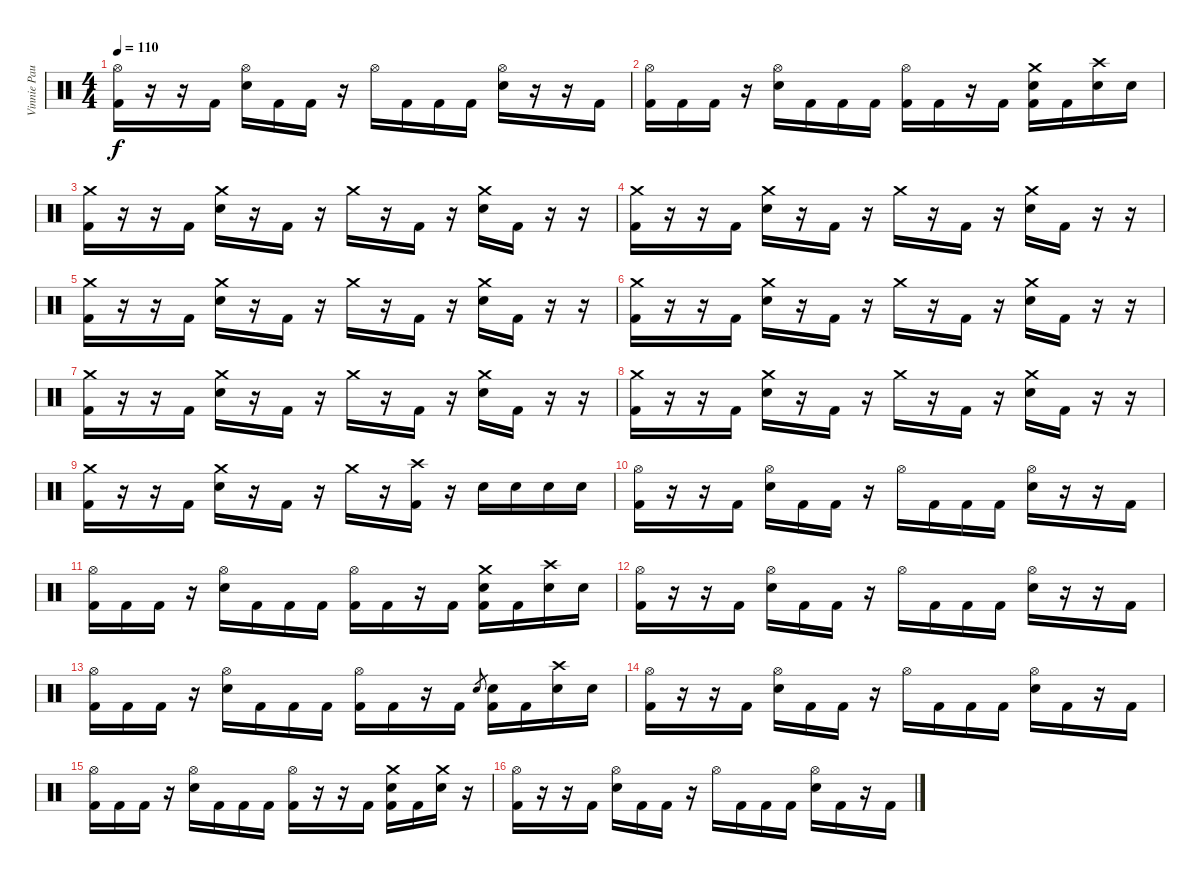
\track ("Vinnie Paul" "Vinnie Pau") {instrument percussion}
\staff {score}
\articulation defaults
\ts (4 4)
\tempo 110
\clef neutral
\ks c
("Hi-Hat (open)" "Kick (hit) 2").16{dy f} r.16 r.16 "Kick (hit) 2".16 ("Hi-Hat (open)" "Electric Snare (hit)").16 "Kick (hit) 2".16 "Kick (hit) 2".16 r.16 "Hi-Hat (open)".16 "Kick (hit) 2".16 "Kick (hit) 2".16 "Kick (hit) 2".16 ("Hi-Hat (open)" "Electric Snare (hit)").16 r.16 r.16 "Kick (hit) 2".16 |
("Hi-Hat (open)" "Kick (hit) 2").16 "Kick (hit) 2".16 "Kick (hit) 2".16 r.16 ("Hi-Hat (open)" "Electric Snare (hit)").16 "Kick (hit) 2".16 "Kick (hit) 2".16 "Kick (hit) 2".16 ("Hi-Hat (open)" "Kick (hit) 2").16 "Kick (hit) 2".16 r.16 "Kick (hit) 2".16 ("Crash medium (hit)" "Electric Snare (hit)" "Kick (hit) 2").16 "Kick (hit) 2".16 ("Crash high (hit)" "Electric Snare (hit)").16 "Electric Snare (hit)".16 |
("Crash medium (hit)" "Kick (hit) 2").16 r.16 r.16 "Kick (hit) 2".16 ("Crash medium (hit)" "Electric Snare (hit)").16 r.16 "Kick (hit) 2".16 r.16 "Crash medium (hit)".16 r.16 "Kick (hit) 2".16 r.16 ("Crash medium (hit)" "Electric Snare (hit)").16 "Kick (hit) 2".16 r.16 r.16 |
("Crash medium (hit)" "Kick (hit) 2").16 r.16 r.16 "Kick (hit) 2".16 ("Crash medium (hit)" "Electric Snare (hit)").16 r.16 "Kick (hit) 2".16 r.16 "Crash medium (hit)".16 r.16 "Kick (hit) 2".16 r.16 ("Crash medium (hit)" "Electric Snare (hit)").16 "Kick (hit) 2".16 r.16 r.16 |
("Crash medium (hit)" "Kick (hit) 2").16 r.16 r.16 "Kick (hit) 2".16 ("Crash medium (hit)" "Electric Snare (hit)").16 r.16 "Kick (hit) 2".16 r.16 "Crash medium (hit)".16 r.16 "Kick (hit) 2".16 r.16 ("Crash medium (hit)" "Electric Snare (hit)").16 "Kick (hit) 2".16 r.16 r.16 |
("Crash medium (hit)" "Kick (hit) 2").16 r.16 r.16 "Kick (hit) 2".16 ("Crash medium (hit)" "Electric Snare (hit)").16 r.16 "Kick (hit) 2".16 r.16 "Crash medium (hit)".16 r.16 "Kick (hit) 2".16 r.16 ("Crash medium (hit)" "Electric Snare (hit)").16 "Kick (hit) 2".16 r.16 r.16 |
("Crash medium (hit)" "Kick (hit) 2").16 r.16 r.16 "Kick (hit) 2".16 ("Crash medium (hit)" "Electric Snare (hit)").16 r.16 "Kick (hit) 2".16 r.16 "Crash medium (hit)".16 r.16 "Kick (hit) 2".16 r.16 ("Crash medium (hit)" "Electric Snare (hit)").16 "Kick (hit) 2".16 r.16 r.16 |
("Crash medium (hit)" "Kick (hit) 2").16 r.16 r.16 "Kick (hit) 2".16 ("Crash medium (hit)" "Electric Snare (hit)").16 r.16 "Kick (hit) 2".16 r.16 "Crash medium (hit)".16 r.16 "Kick (hit) 2".16 r.16 ("Crash medium (hit)" "Electric Snare (hit)").16 "Kick (hit) 2".16 r.16 r.16 |
("Crash medium (hit)" "Kick (hit) 2").16 r.16 r.16 "Kick (hit) 2".16 ("Crash medium (hit)" "Electric Snare (hit)").16 r.16 "Kick (hit) 2".16 r.16 "Crash medium (hit)".16 r.16 ("Crash high (hit)" "Kick (hit) 2").16 r.16 "Electric Snare (hit)".16 "Electric Snare (hit)".16 "Electric Snare (hit)".16 "Electric Snare (hit)".16 |
("Hi-Hat (open)" "Kick (hit) 2").16 r.16 r.16 "Kick (hit) 2".16 ("Hi-Hat (open)" "Electric Snare (hit)").16 "Kick (hit) 2".16 "Kick (hit) 2".16 r.16 "Hi-Hat (open)".16 "Kick (hit) 2".16 "Kick (hit) 2".16 "Kick (hit) 2".16 ("Hi-Hat (open)" "Electric Snare (hit)").16 r.16 r.16 "Kick (hit) 2".16 |
("Hi-Hat (open)" "Kick (hit) 2").16 "Kick (hit) 2".16 "Kick (hit) 2".16 r.16 ("Hi-Hat (open)" "Electric Snare (hit)").16 "Kick (hit) 2".16 "Kick (hit) 2".16 "Kick (hit) 2".16 ("Hi-Hat (open)" "Kick (hit) 2").16 "Kick (hit) 2".16 r.16 "Kick (hit) 2".16 ("Crash medium (hit)" "Electric Snare (hit)" "Kick (hit) 2").16 "Kick (hit) 2".16 ("Crash high (hit)" "Electric Snare (hit)").16 "Electric Snare (hit)".16 |
("Hi-Hat (open)" "Kick (hit) 2").16 r.16 r.16 "Kick (hit) 2".16 ("Hi-Hat (open)" "Electric Snare (hit)").16 "Kick (hit) 2".16 "Kick (hit) 2".16 r.16 "Hi-Hat (open)".16 "Kick (hit) 2".16 "Kick (hit) 2".16 "Kick (hit) 2".16 ("Hi-Hat (open)" "Electric Snare (hit)").16 r.16 r.16 "Kick (hit) 2".16 |
("Hi-Hat (open)" "Kick (hit) 2").16 "Kick (hit) 2".16 "Kick (hit) 2".16 r.16 ("Hi-Hat (open)" "Electric Snare (hit)").16 "Kick (hit) 2".16 "Kick (hit) 2".16 "Kick (hit) 2".16 ("Hi-Hat (open)" "Kick (hit) 2").16 "Kick (hit) 2".16 r.16 "Kick (hit) 2".16 "Electric Snare (hit)".8{gr} ("Electric Snare (hit)" "Kick (hit) 2").16 "Kick (hit) 2".16 ("Crash high (hit)" "Electric Snare (hit)").16 "Electric Snare (hit)".16 |
("Hi-Hat (open)" "Kick (hit) 2").16 r.16 r.16 "Kick (hit) 2".16 ("Hi-Hat (open)" "Electric Snare (hit)").16 "Kick (hit) 2".16 "Kick (hit) 2".16 r.16 "Hi-Hat (open)".16 "Kick (hit) 2".16 "Kick (hit) 2".16 "Kick (hit) 2".16 ("Hi-Hat (open)" "Electric Snare (hit)").16 "Kick (hit) 2".16 r.16 "Kick (hit) 2".16 |
("Hi-Hat (open)" "Kick (hit) 2").16 "Kick (hit) 2".16 "Kick (hit) 2".16 r.16 ("Hi-Hat (open)" "Electric Snare (hit)").16 "Kick (hit) 2".16 "Kick (hit) 2".16 "Kick (hit) 2".16 ("Hi-Hat (open)" "Kick (hit) 2").16 r.16 r.16 "Kick (hit) 2".16 ("Crash medium (hit)" "Electric Snare (hit)" "Kick (hit) 2").16 "Kick (hit) 2".16 ("Crash medium (hit)" "Electric Snare (hit)").16 r.16 |
("Hi-Hat (open)" "Kick (hit) 2").16 r.16 r.16 "Kick (hit) 2".16 ("Hi-Hat (open)" "Electric Snare (hit)").16 "Kick (hit) 2".16 "Kick (hit) 2".16 r.16 "Hi-Hat (open)".16 "Kick (hit) 2".16 "Kick (hit) 2".16 "Kick (hit) 2".16 ("Hi-Hat (open)" "Electric Snare (hit)").16 "Kick (hit) 2".16 r.16 "Kick (hit) 2".16
